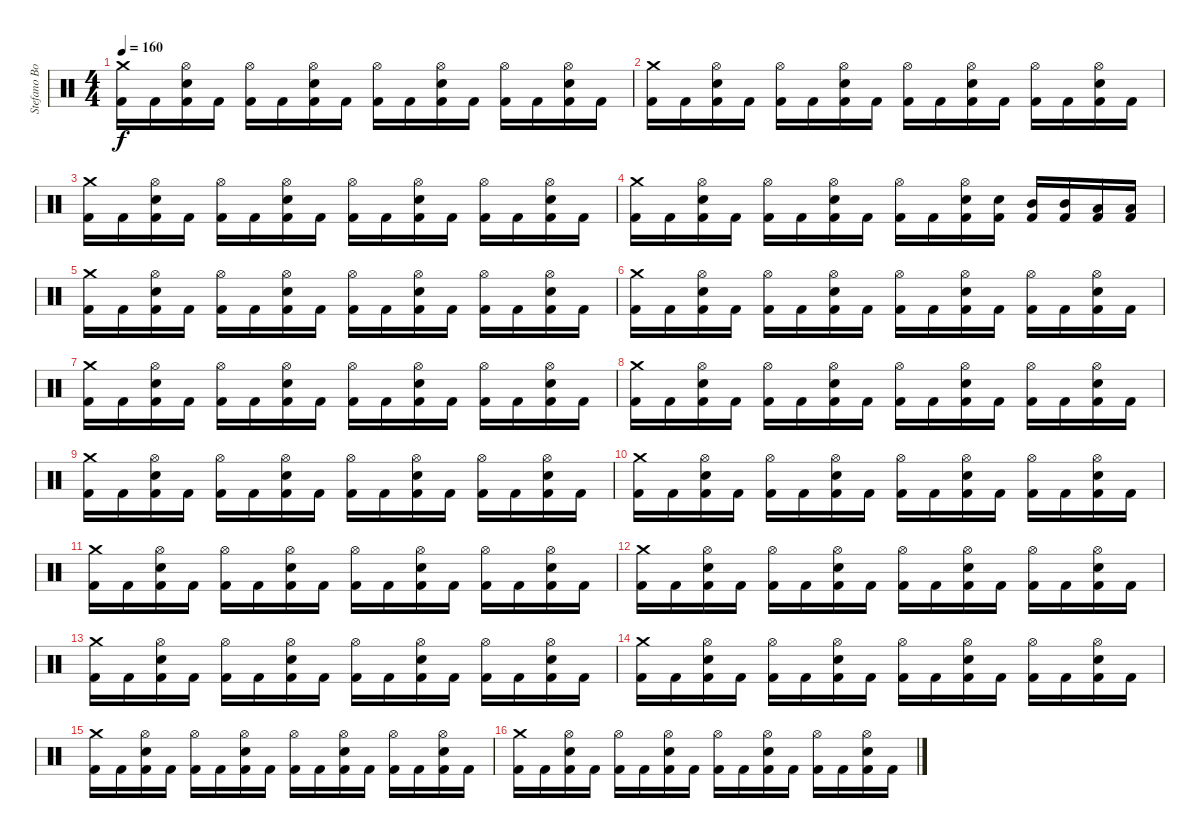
\track ("Stefano Bonini" "Stefano Bo") {instrument percussion}
\staff {score}
\articulation defaults
\ts (4 4)
\tempo 160
\clef neutral
\ks c
("Crash medium (hit)" "Kick (hit) 2").16{dy f} "Kick (hit) 2".16 ("Hi-Hat (open)" "Snare (hit) 2" "Kick (hit) 2").16 "Kick (hit) 2".16 ("Hi-Hat (open)" "Kick (hit) 2").16 "Kick (hit) 2".16 ("Hi-Hat (open)" "Snare (hit) 2" "Kick (hit) 2").16 "Kick (hit) 2".16 ("Hi-Hat (open)" "Kick (hit) 2").16 "Kick (hit) 2".16 ("Hi-Hat (open)" "Snare (hit) 2" "Kick (hit) 2").16 "Kick (hit) 2".16 ("Hi-Hat (open)" "Kick (hit) 2").16 "Kick (hit) 2".16 ("Hi-Hat (open)" "Snare (hit) 2" "Kick (hit) 2").16 "Kick (hit) 2".16 |
("Crash medium (hit)" "Kick (hit) 2").16 "Kick (hit) 2".16 ("Hi-Hat (open)" "Snare (hit) 2" "Kick (hit) 2").16 "Kick (hit) 2".16 ("Hi-Hat (open)" "Kick (hit) 2").16 "Kick (hit) 2".16 ("Hi-Hat (open)" "Snare (hit) 2" "Kick (hit) 2").16 "Kick (hit) 2".16 ("Hi-Hat (open)" "Kick (hit) 2").16 "Kick (hit) 2".16 ("Hi-Hat (open)" "Snare (hit) 2" "Kick (hit) 2").16 "Kick (hit) 2".16 ("Hi-Hat (open)" "Kick (hit) 2").16 "Kick (hit) 2".16 ("Hi-Hat (open)" "Snare (hit) 2" "Kick (hit) 2").16 "Kick (hit) 2".16 |
("Crash medium (hit)" "Kick (hit) 2").16 "Kick (hit) 2".16 ("Hi-Hat (open)" "Snare (hit) 2" "Kick (hit) 2").16 "Kick (hit) 2".16 ("Hi-Hat (open)" "Kick (hit) 2").16 "Kick (hit) 2".16 ("Hi-Hat (open)" "Snare (hit) 2" "Kick (hit) 2").16 "Kick (hit) 2".16 ("Hi-Hat (open)" "Kick (hit) 2").16 "Kick (hit) 2".16 ("Hi-Hat (open)" "Snare (hit) 2" "Kick (hit) 2").16 "Kick (hit) 2".16 ("Hi-Hat (open)" "Kick (hit) 2").16 "Kick (hit) 2".16 ("Hi-Hat (open)" "Snare (hit) 2" "Kick (hit) 2").16 "Kick (hit) 2".16 |
("Crash medium (hit)" "Kick (hit) 2").16 "Kick (hit) 2".16 ("Hi-Hat (open)" "Snare (hit) 2" "Kick (hit) 2").16 "Kick (hit) 2".16 ("Hi-Hat (open)" "Kick (hit) 2").16 "Kick (hit) 2".16 ("Hi-Hat (open)" "Snare (hit) 2" "Kick (hit) 2").16 "Kick (hit) 2".16 ("Hi-Hat (open)" "Kick (hit) 2").16 "Kick (hit) 2".16 ("Hi-Hat (open)" "Snare (hit) 2" "Kick (hit) 2").16 ("Snare (hit) 2" "Kick (hit) 2").16 ("Mid Tom (hit)" "Kick (hit) 2").16 ("Mid Tom (hit)" "Kick (hit) 2").16 ("Low Tom (hit)" "Kick (hit) 2").16 ("Low Tom (hit)" "Kick (hit) 2").16 |
("Crash medium (hit)" "Kick (hit) 2").16 "Kick (hit) 2".16 ("Hi-Hat (open)" "Snare (hit) 2" "Kick (hit) 2").16 "Kick (hit) 2".16 ("Hi-Hat (open)" "Kick (hit) 2").16 "Kick (hit) 2".16 ("Hi-Hat (open)" "Snare (hit) 2" "Kick (hit) 2").16 "Kick (hit) 2".16 ("Hi-Hat (open)" "Kick (hit) 2").16 "Kick (hit) 2".16 ("Hi-Hat (open)" "Snare (hit) 2" "Kick (hit) 2").16 "Kick (hit) 2".16 ("Hi-Hat (open)" "Kick (hit) 2").16 "Kick (hit) 2".16 ("Hi-Hat (open)" "Snare (hit) 2" "Kick (hit) 2").16 "Kick (hit) 2".16 |
("Crash medium (hit)" "Kick (hit) 2").16 "Kick (hit) 2".16 ("Hi-Hat (open)" "Snare (hit) 2" "Kick (hit) 2").16 "Kick (hit) 2".16 ("Hi-Hat (open)" "Kick (hit) 2").16 "Kick (hit) 2".16 ("Hi-Hat (open)" "Snare (hit) 2" "Kick (hit) 2").16 "Kick (hit) 2".16 ("Hi-Hat (open)" "Kick (hit) 2").16 "Kick (hit) 2".16 ("Hi-Hat (open)" "Snare (hit) 2" "Kick (hit) 2").16 "Kick (hit) 2".16 ("Hi-Hat (open)" "Kick (hit) 2").16 "Kick (hit) 2".16 ("Hi-Hat (open)" "Snare (hit) 2" "Kick (hit) 2").16 "Kick (hit) 2".16 |
("Crash medium (hit)" "Kick (hit) 2").16 "Kick (hit) 2".16 ("Hi-Hat (open)" "Snare (hit) 2" "Kick (hit) 2").16 "Kick (hit) 2".16 ("Hi-Hat (open)" "Kick (hit) 2").16 "Kick (hit) 2".16 ("Hi-Hat (open)" "Snare (hit) 2" "Kick (hit) 2").16 "Kick (hit) 2".16 ("Hi-Hat (open)" "Kick (hit) 2").16 "Kick (hit) 2".16 ("Hi-Hat (open)" "Snare (hit) 2" "Kick (hit) 2").16 "Kick (hit) 2".16 ("Hi-Hat (open)" "Kick (hit) 2").16 "Kick (hit) 2".16 ("Hi-Hat (open)" "Snare (hit) 2" "Kick (hit) 2").16 "Kick (hit) 2".16 |
("Crash medium (hit)" "Kick (hit) 2").16 "Kick (hit) 2".16 ("Hi-Hat (open)" "Snare (hit) 2" "Kick (hit) 2").16 "Kick (hit) 2".16 ("Hi-Hat (open)" "Kick (hit) 2").16 "Kick (hit) 2".16 ("Hi-Hat (open)" "Snare (hit) 2" "Kick (hit) 2").16 "Kick (hit) 2".16 ("Hi-Hat (open)" "Kick (hit) 2").16 "Kick (hit) 2".16 ("Hi-Hat (open)" "Snare (hit) 2" "Kick (hit) 2").16 "Kick (hit) 2".16 ("Hi-Hat (open)" "Kick (hit) 2").16 "Kick (hit) 2".16 ("Hi-Hat (open)" "Snare (hit) 2" "Kick (hit) 2").16 "Kick (hit) 2".16 |
("Crash medium (hit)" "Kick (hit) 2").16 "Kick (hit) 2".16 ("Hi-Hat (open)" "Snare (hit) 2" "Kick (hit) 2").16 "Kick (hit) 2".16 ("Hi-Hat (open)" "Kick (hit) 2").16 "Kick (hit) 2".16 ("Hi-Hat (open)" "Snare (hit) 2" "Kick (hit) 2").16 "Kick (hit) 2".16 ("Hi-Hat (open)" "Kick (hit) 2").16 "Kick (hit) 2".16 ("Hi-Hat (open)" "Snare (hit) 2" "Kick (hit) 2").16 "Kick (hit) 2".16 ("Hi-Hat (open)" "Kick (hit) 2").16 "Kick (hit) 2".16 ("Hi-Hat (open)" "Snare (hit) 2" "Kick (hit) 2").16 "Kick (hit) 2".16 |
("Crash medium (hit)" "Kick (hit) 2").16 "Kick (hit) 2".16 ("Hi-Hat (open)" "Snare (hit) 2" "Kick (hit) 2").16 "Kick (hit) 2".16 ("Hi-Hat (open)" "Kick (hit) 2").16 "Kick (hit) 2".16 ("Hi-Hat (open)" "Snare (hit) 2" "Kick (hit) 2").16 "Kick (hit) 2".16 ("Hi-Hat (open)" "Kick (hit) 2").16 "Kick (hit) 2".16 ("Hi-Hat (open)" "Snare (hit) 2" "Kick (hit) 2").16 "Kick (hit) 2".16 ("Hi-Hat (open)" "Kick (hit) 2").16 "Kick (hit) 2".16 ("Hi-Hat (open)" "Snare (hit) 2" "Kick (hit) 2").16 "Kick (hit) 2".16 |
("Crash medium (hit)" "Kick (hit) 2").16 "Kick (hit) 2".16 ("Hi-Hat (open)" "Snare (hit) 2" "Kick (hit) 2").16 "Kick (hit) 2".16 ("Hi-Hat (open)" "Kick (hit) 2").16 "Kick (hit) 2".16 ("Hi-Hat (open)" "Snare (hit) 2" "Kick (hit) 2").16 "Kick (hit) 2".16 ("Hi-Hat (open)" "Kick (hit) 2").16 "Kick (hit) 2".16 ("Hi-Hat (open)" "Snare (hit) 2" "Kick (hit) 2").16 "Kick (hit) 2".16 ("Hi-Hat (open)" "Kick (hit) 2").16 "Kick (hit) 2".16 ("Hi-Hat (open)" "Snare (hit) 2" "Kick (hit) 2").16 "Kick (hit) 2".16 |
("Crash medium (hit)" "Kick (hit) 2").16 "Kick (hit) 2".16 ("Hi-Hat (open)" "Snare (hit) 2" "Kick (hit) 2").16 "Kick (hit) 2".16 ("Hi-Hat (open)" "Kick (hit) 2").16 "Kick (hit) 2".16 ("Hi-Hat (open)" "Snare (hit) 2" "Kick (hit) 2").16 "Kick (hit) 2".16 ("Hi-Hat (open)" "Kick (hit) 2").16 "Kick (hit) 2".16 ("Hi-Hat (open)" "Snare (hit) 2" "Kick (hit) 2").16 "Kick (hit) 2".16 ("Hi-Hat (open)" "Kick (hit) 2").16 "Kick (hit) 2".16 ("Hi-Hat (open)" "Snare (hit) 2" "Kick (hit) 2").16 "Kick (hit) 2".16 |
("Crash medium (hit)" "Kick (hit) 2").16 "Kick (hit) 2".16 ("Hi-Hat (open)" "Snare (hit) 2" "Kick (hit) 2").16 "Kick (hit) 2".16 ("Hi-Hat (open)" "Kick (hit) 2").16 "Kick (hit) 2".16 ("Hi-Hat (open)" "Snare (hit) 2" "Kick (hit) 2").16 "Kick (hit) 2".16 ("Hi-Hat (open)" "Kick (hit) 2").16 "Kick (hit) 2".16 ("Hi-Hat (open)" "Snare (hit) 2" "Kick (hit) 2").16 "Kick (hit) 2".16 ("Hi-Hat (open)" "Kick (hit) 2").16 "Kick (hit) 2".16 ("Hi-Hat (open)" "Snare (hit) 2" "Kick (hit) 2").16 "Kick (hit) 2".16 |
("Crash medium (hit)" "Kick (hit) 2").16 "Kick (hit) 2".16 ("Hi-Hat (open)" "Snare (hit) 2" "Kick (hit) 2").16 "Kick (hit) 2".16 ("Hi-Hat (open)" "Kick (hit) 2").16 "Kick (hit) 2".16 ("Hi-Hat (open)" "Snare (hit) 2" "Kick (hit) 2").16 "Kick (hit) 2".16 ("Hi-Hat (open)" "Kick (hit) 2").16 "Kick (hit) 2".16 ("Hi-Hat (open)" "Snare (hit) 2" "Kick (hit) 2").16 "Kick (hit) 2".16 ("Hi-Hat (open)" "Kick (hit) 2").16 "Kick (hit) 2".16 ("Hi-Hat (open)" "Snare (hit) 2" "Kick (hit) 2").16 "Kick (hit) 2".16 |
("Crash medium (hit)" "Kick (hit) 2").16 "Kick (hit) 2".16 ("Hi-Hat (open)" "Snare (hit) 2" "Kick (hit) 2").16 "Kick (hit) 2".16 ("Hi-Hat (open)" "Kick (hit) 2").16 "Kick (hit) 2".16 ("Hi-Hat (open)" "Snare (hit) 2" "Kick (hit) 2").16 "Kick (hit) 2".16 ("Hi-Hat (open)" "Kick (hit) 2").16 "Kick (hit) 2".16 ("Hi-Hat (open)" "Snare (hit) 2" "Kick (hit) 2").16 "Kick (hit) 2".16 ("Hi-Hat (open)" "Kick (hit) 2").16 "Kick (hit) 2".16 ("Hi-Hat (open)" "Snare (hit) 2" "Kick (hit) 2").16 "Kick (hit) 2".16 |
("Crash medium (hit)" "Kick (hit) 2").16 "Kick (hit) 2".16 ("Hi-Hat (open)" "Snare (hit) 2" "Kick (hit) 2").16 "Kick (hit) 2".16 ("Hi-Hat (open)" "Kick (hit) 2").16 "Kick (hit) 2".16 ("Hi-Hat (open)" "Snare (hit) 2" "Kick (hit) 2").16 "Kick (hit) 2".16 ("Hi-Hat (open)" "Kick (hit) 2").16 "Kick (hit) 2".16 ("Hi-Hat (open)" "Snare (hit) 2" "Kick (hit) 2").16 "Kick (hit) 2".16 ("Hi-Hat (open)" "Kick (hit) 2").16 "Kick (hit) 2".16 ("Hi-Hat (open)" "Snare (hit) 2" "Kick (hit) 2").16 "Kick (hit) 2".16
